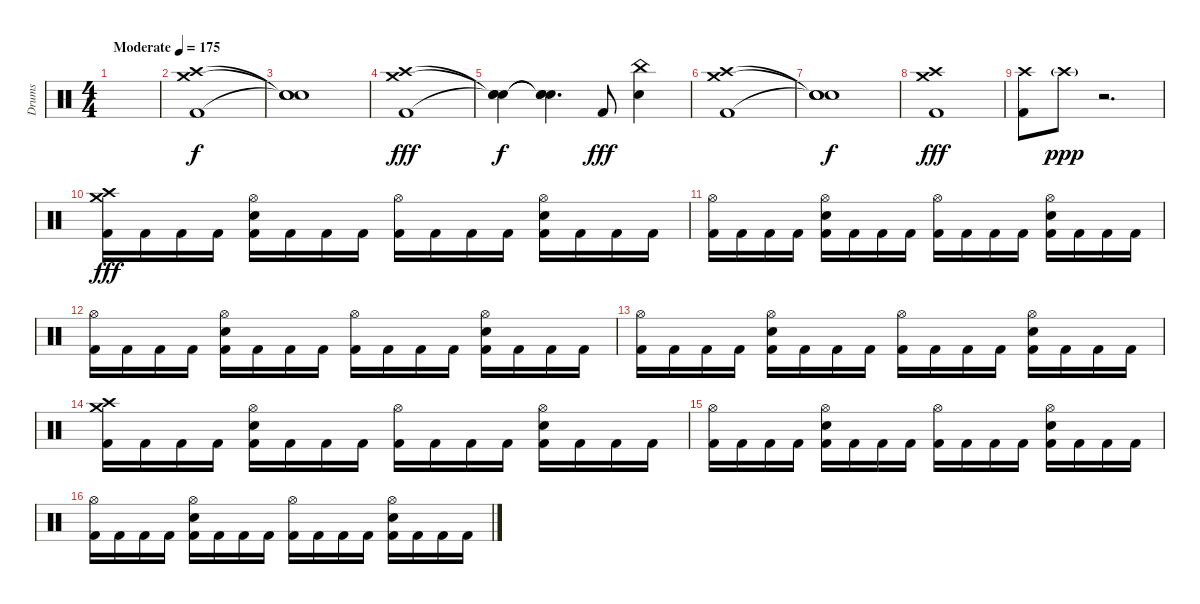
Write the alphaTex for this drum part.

\track ("Drums" "Drums") {instrument percussion}
\staff {score}
\articulation defaults
\ts (4 4)
\tempo (175 "Moderate")
\clef neutral
\ks c
|
("Crash medium (hit)" "Crash high (hit)" "Kick (hit) 2").1 |
("Snare (hit)"{t} "Snare (hit)"{t} "Snare (hit)"{t}).1{dy f} |
("Crash medium (hit)" "Crash high (hit)" "Kick (hit) 2").1{dy fff} |
("Snare (hit)"{t} "Snare (hit)"{t} "Snare (hit)"{t}).4{dy f} ("Snare (hit)"{t} "Snare (hit)"{t} "Snare (hit)"{t}).4{d} "Kick (hit) 2".8{dy fff} ("China (hit)" "Snare (hit) 2").4 |
("Crash medium (hit)" "Crash high (hit)" "Kick (hit) 2").1 |
("Snare (hit)"{t} "Snare (hit)"{t} "Snare (hit)"{t}).1{dy f} |
("Crash medium (hit)" "Crash high (hit)" "Kick (hit) 2").1{dy fff} |
("Crash high (hit)" "Kick (hit) 2").8 "Crash high (hit)"{g}.8{dy ppp} r.2{d} |
("Crash high (hit)" "Crash medium (hit)" "Kick (hit) 2").16{dy fff} "Kick (hit) 2".16 "Kick (hit) 2".16 "Kick (hit) 2".16 ("Hi-Hat (open)" "Snare (hit) 2" "Kick (hit) 2").16 "Kick (hit) 2".16 "Kick (hit) 2".16 "Kick (hit) 2".16 ("Hi-Hat (open)" "Kick (hit) 2").16 "Kick (hit) 2".16 "Kick (hit) 2".16 "Kick (hit) 2".16 ("Hi-Hat (open)" "Snare (hit) 2" "Kick (hit) 2").16 "Kick (hit) 2".16 "Kick (hit) 2".16 "Kick (hit) 2".16 |
("Hi-Hat (open)" "Kick (hit) 2").16 "Kick (hit) 2".16 "Kick (hit) 2".16 "Kick (hit) 2".16 ("Hi-Hat (open)" "Snare (hit) 2" "Kick (hit) 2").16 "Kick (hit) 2".16 "Kick (hit) 2".16 "Kick (hit) 2".16 ("Hi-Hat (open)" "Kick (hit) 2").16 "Kick (hit) 2".16 "Kick (hit) 2".16 "Kick (hit) 2".16 ("Hi-Hat (open)" "Snare (hit) 2" "Kick (hit) 2").16 "Kick (hit) 2".16 "Kick (hit) 2".16 "Kick (hit) 2".16 |
("Hi-Hat (open)" "Kick (hit) 2").16 "Kick (hit) 2".16 "Kick (hit) 2".16 "Kick (hit) 2".16 ("Hi-Hat (open)" "Snare (hit) 2" "Kick (hit) 2").16 "Kick (hit) 2".16 "Kick (hit) 2".16 "Kick (hit) 2".16 ("Hi-Hat (open)" "Kick (hit) 2").16 "Kick (hit) 2".16 "Kick (hit) 2".16 "Kick (hit) 2".16 ("Hi-Hat (open)" "Snare (hit) 2" "Kick (hit) 2").16 "Kick (hit) 2".16 "Kick (hit) 2".16 "Kick (hit) 2".16 |
("Hi-Hat (open)" "Kick (hit) 2").16 "Kick (hit) 2".16 "Kick (hit) 2".16 "Kick (hit) 2".16 ("Hi-Hat (open)" "Snare (hit) 2" "Kick (hit) 2").16 "Kick (hit) 2".16 "Kick (hit) 2".16 "Kick (hit) 2".16 ("Hi-Hat (open)" "Kick (hit) 2").16 "Kick (hit) 2".16 "Kick (hit) 2".16 "Kick (hit) 2".16 ("Hi-Hat (open)" "Snare (hit) 2" "Kick (hit) 2").16 "Kick (hit) 2".16 "Kick (hit) 2".16 "Kick (hit) 2".16 |
("Crash high (hit)" "Crash medium (hit)" "Kick (hit) 2").16 "Kick (hit) 2".16 "Kick (hit) 2".16 "Kick (hit) 2".16 ("Hi-Hat (open)" "Snare (hit) 2" "Kick (hit) 2").16 "Kick (hit) 2".16 "Kick (hit) 2".16 "Kick (hit) 2".16 ("Hi-Hat (open)" "Kick (hit) 2").16 "Kick (hit) 2".16 "Kick (hit) 2".16 "Kick (hit) 2".16 ("Hi-Hat (open)" "Snare (hit) 2" "Kick (hit) 2").16 "Kick (hit) 2".16 "Kick (hit) 2".16 "Kick (hit) 2".16 |
("Hi-Hat (open)" "Kick (hit) 2").16 "Kick (hit) 2".16 "Kick (hit) 2".16 "Kick (hit) 2".16 ("Hi-Hat (open)" "Snare (hit) 2" "Kick (hit) 2").16 "Kick (hit) 2".16 "Kick (hit) 2".16 "Kick (hit) 2".16 ("Hi-Hat (open)" "Kick (hit) 2").16 "Kick (hit) 2".16 "Kick (hit) 2".16 "Kick (hit) 2".16 ("Hi-Hat (open)" "Snare (hit) 2" "Kick (hit) 2").16 "Kick (hit) 2".16 "Kick (hit) 2".16 "Kick (hit) 2".16 |
("Hi-Hat (open)" "Kick (hit) 2").16 "Kick (hit) 2".16 "Kick (hit) 2".16 "Kick (hit) 2".16 ("Hi-Hat (open)" "Snare (hit) 2" "Kick (hit) 2").16 "Kick (hit) 2".16 "Kick (hit) 2".16 "Kick (hit) 2".16 ("Hi-Hat (open)" "Kick (hit) 2").16 "Kick (hit) 2".16 "Kick (hit) 2".16 "Kick (hit) 2".16 ("Hi-Hat (open)" "Snare (hit) 2" "Kick (hit) 2").16 "Kick (hit) 2".16 "Kick (hit) 2".16 "Kick (hit) 2".16
